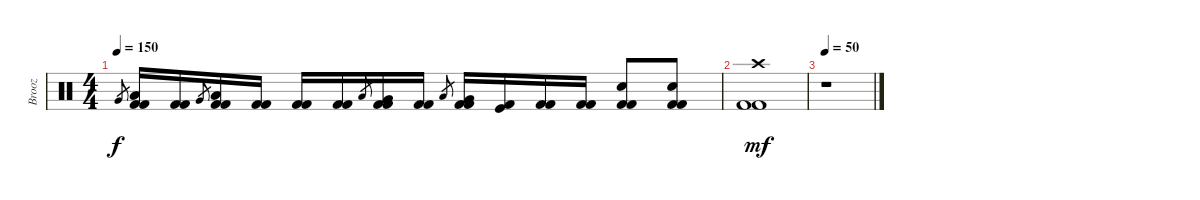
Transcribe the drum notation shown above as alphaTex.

\track ("Brooz" "Brooz") {instrument percussion}
\staff {score}
\articulation defaults
\ts (4 4)
\tempo 150
\clef neutral
\ks c "Very Low Tom (hit)".8{gr dy f}
("Low Tom (hit)" "Kick (hit) 2" "Kick (hit) 2").16 ("Kick (hit) 2" "Kick (hit) 2").16 "Very Low Tom (hit)".8{gr} ("Low Tom (hit)" "Kick (hit) 2" "Kick (hit) 2").16 ("Kick (hit) 2" "Kick (hit) 2").16 ("Kick (hit) 2" "Kick (hit) 2").16 ("Kick (hit) 2" "Kick (hit) 2").16 "Low Floor Tom (hit)".8{gr} ("Very Low Tom (hit)" "Kick (hit) 2" "Kick (hit) 2").16 ("Kick (hit) 2" "Kick (hit) 2").16 "Low Floor Tom (hit)".8{gr} ("Very Low Tom (hit)" "Kick (hit) 2" "Kick (hit) 2").16 ("Kick (hit) 2" "Kick (hit)").16 ("Kick (hit) 2" "Kick (hit) 2").16 ("Kick (hit) 2" "Kick (hit) 2").16 ("Snare (hit) 2" "Kick (hit) 2" "Kick (hit) 2").8 ("Snare (hit) 2" "Kick (hit) 2" "Kick (hit) 2").8 |
("Crash high (hit)" "Kick (hit) 2" "Kick (hit) 2").1{dy mf} |
\tempo 50
r.1
